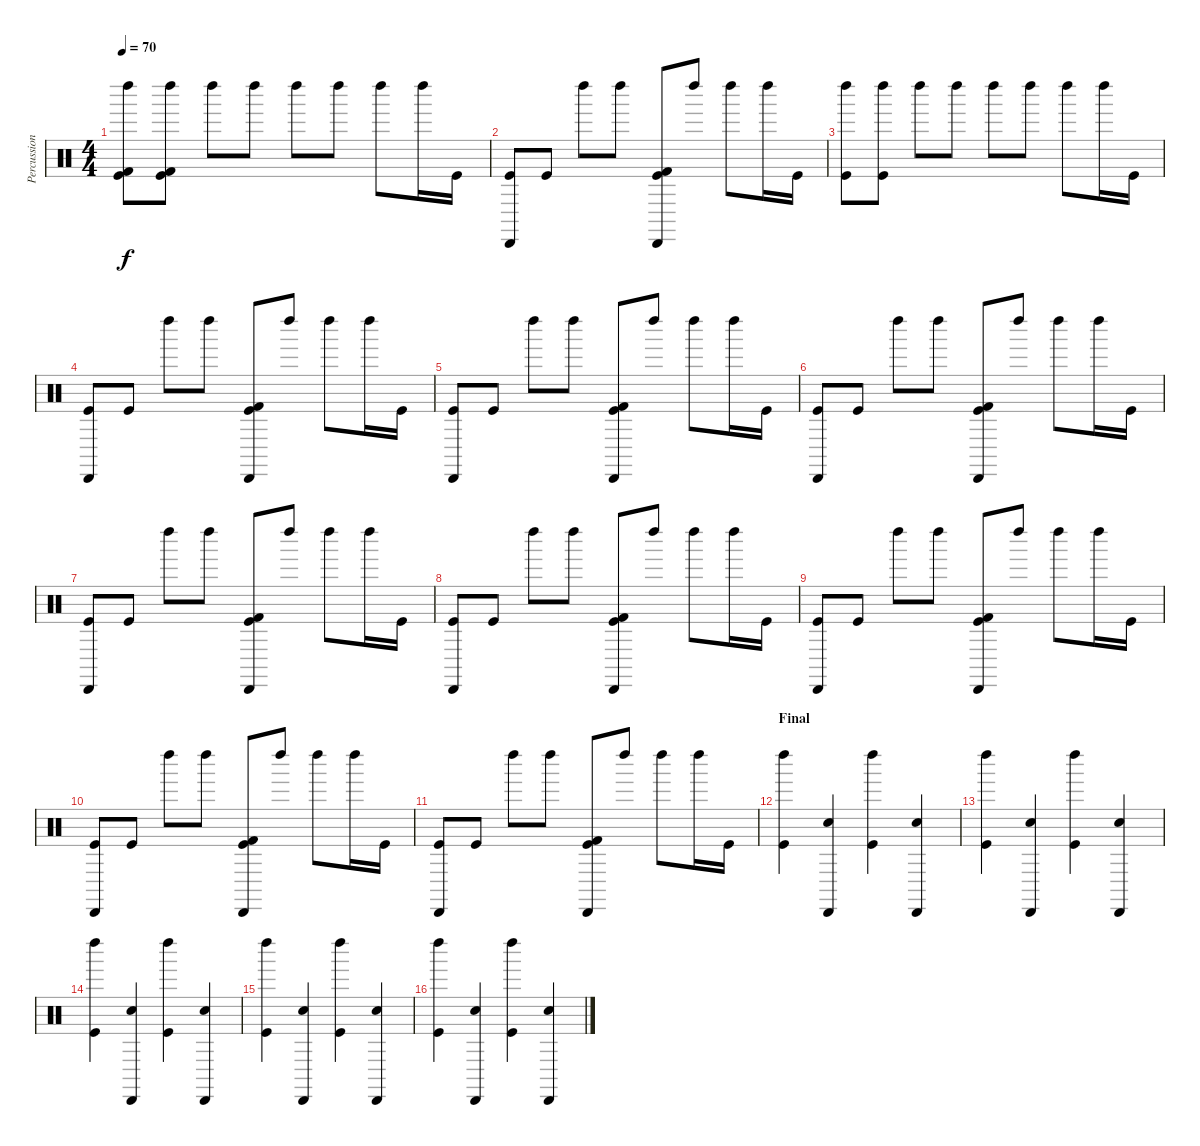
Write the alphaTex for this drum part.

\track ("Percussions" "Percussion") {instrument percussion}
\staff {score}
\articulation defaults
\ts (4 4)
\tempo 70
\clef neutral
\ks c
("Left Maraca (hit)" "Kick (hit) 2" "Kick (hit)").8{dy f} ("Left Maraca (hit)" "Kick (hit) 2" "Kick (hit)").8 "Left Maraca (hit)".8 "Left Maraca (hit)".8 "Left Maraca (hit)".8 "Left Maraca (hit)".8 "Left Maraca (hit)".8 "Left Maraca (hit)".16 "Kick (hit)".16 |
("Cabasa (hit)" "Kick (hit)").8 "Kick (hit)".8 "Left Maraca (hit)".8 "Left Maraca (hit)".8 ("Cabasa (hit)" "Kick (hit) 2" "Kick (hit)").8 "Left Maraca (hit)".8 "Left Maraca (hit)".8 "Left Maraca (hit)".16 "Kick (hit)".16 |
("Left Maraca (hit)" "Kick (hit)").8 ("Left Maraca (hit)" "Kick (hit)").8 "Left Maraca (hit)".8 "Left Maraca (hit)".8 "Left Maraca (hit)".8 "Left Maraca (hit)".8 "Left Maraca (hit)".8 "Left Maraca (hit)".16 "Kick (hit)".16 |
("Cabasa (hit)" "Kick (hit)").8 "Kick (hit)".8 "Left Maraca (hit)".8 "Left Maraca (hit)".8 ("Cabasa (hit)" "Kick (hit) 2" "Kick (hit)").8 "Left Maraca (hit)".8 "Left Maraca (hit)".8 "Left Maraca (hit)".16 "Kick (hit)".16 |
("Cabasa (hit)" "Kick (hit)").8 "Kick (hit)".8 "Left Maraca (hit)".8 "Left Maraca (hit)".8 ("Cabasa (hit)" "Kick (hit) 2" "Kick (hit)").8 "Left Maraca (hit)".8 "Left Maraca (hit)".8 "Left Maraca (hit)".16 "Kick (hit)".16 |
("Cabasa (hit)" "Kick (hit)").8 "Kick (hit)".8 "Left Maraca (hit)".8 "Left Maraca (hit)".8 ("Cabasa (hit)" "Kick (hit) 2" "Kick (hit)").8 "Left Maraca (hit)".8 "Left Maraca (hit)".8 "Left Maraca (hit)".16 "Kick (hit)".16 |
("Cabasa (hit)" "Kick (hit)").8 "Kick (hit)".8 "Left Maraca (hit)".8 "Left Maraca (hit)".8 ("Cabasa (hit)" "Kick (hit) 2" "Kick (hit)").8 "Left Maraca (hit)".8 "Left Maraca (hit)".8 "Left Maraca (hit)".16 "Kick (hit)".16 |
("Cabasa (hit)" "Kick (hit)").8 "Kick (hit)".8 "Left Maraca (hit)".8 "Left Maraca (hit)".8 ("Cabasa (hit)" "Kick (hit) 2" "Kick (hit)").8 "Left Maraca (hit)".8 "Left Maraca (hit)".8 "Left Maraca (hit)".16 "Kick (hit)".16 |
("Cabasa (hit)" "Kick (hit)").8 "Kick (hit)".8 "Left Maraca (hit)".8 "Left Maraca (hit)".8 ("Cabasa (hit)" "Kick (hit) 2" "Kick (hit)").8 "Left Maraca (hit)".8 "Left Maraca (hit)".8 "Left Maraca (hit)".16 "Kick (hit)".16 |
("Cabasa (hit)" "Kick (hit)").8 "Kick (hit)".8 "Left Maraca (hit)".8 "Left Maraca (hit)".8 ("Cabasa (hit)" "Kick (hit) 2" "Kick (hit)").8 "Left Maraca (hit)".8 "Left Maraca (hit)".8 "Left Maraca (hit)".16 "Kick (hit)".16 |
("Cabasa (hit)" "Kick (hit)").8 "Kick (hit)".8 "Left Maraca (hit)".8 "Left Maraca (hit)".8 ("Cabasa (hit)" "Kick (hit) 2" "Kick (hit)").8 "Left Maraca (hit)".8 "Left Maraca (hit)".8 "Left Maraca (hit)".16 "Kick (hit)".16 |
\section ("" "Final")
("Left Maraca (hit)" "Kick (hit)").4 ("Cabasa (hit)" "Snare (hit) 2").4 ("Left Maraca (hit)" "Kick (hit)").4 ("Snare (hit) 2" "Cabasa (hit)").4 |
("Left Maraca (hit)" "Kick (hit)").4 ("Cabasa (hit)" "Snare (hit) 2").4 ("Left Maraca (hit)" "Kick (hit)").4 ("Snare (hit) 2" "Cabasa (hit)").4 |
("Left Maraca (hit)" "Kick (hit)").4 ("Cabasa (hit)" "Snare (hit) 2").4 ("Left Maraca (hit)" "Kick (hit)").4 ("Snare (hit) 2" "Cabasa (hit)").4 |
("Left Maraca (hit)" "Kick (hit)").4 ("Cabasa (hit)" "Snare (hit) 2").4 ("Left Maraca (hit)" "Kick (hit)").4 ("Snare (hit) 2" "Cabasa (hit)").4 |
("Left Maraca (hit)" "Kick (hit)").4 ("Cabasa (hit)" "Snare (hit) 2").4 ("Left Maraca (hit)" "Kick (hit)").4 ("Snare (hit) 2" "Cabasa (hit)").4
